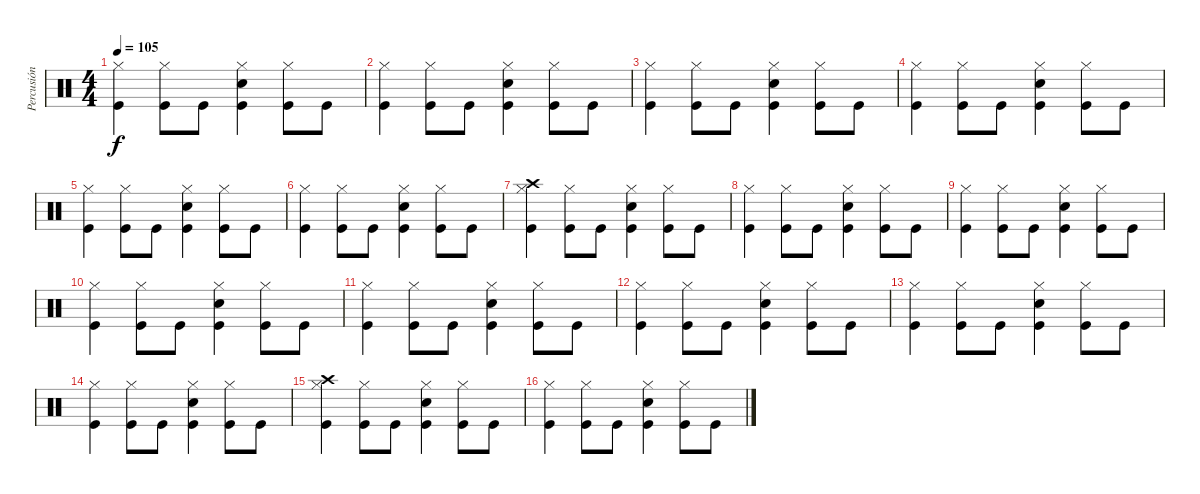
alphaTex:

\track ("Percusión" "Percusión") {instrument percussion}
\staff {score}
\articulation defaults
\ts (4 4)
\tempo 105
\clef neutral
\ks c
("Hi-Hat (closed)" "Kick (hit)").4{dy f} ("Hi-Hat (closed)" "Kick (hit)").8 "Kick (hit)".8 ("Hi-Hat (closed)" "Snare (hit) 2" "Kick (hit)").4 ("Hi-Hat (closed)" "Kick (hit)").8 "Kick (hit)".8 |
("Hi-Hat (closed)" "Kick (hit)").4 ("Hi-Hat (closed)" "Kick (hit)").8 "Kick (hit)".8 ("Hi-Hat (closed)" "Snare (hit) 2" "Kick (hit)").4 ("Hi-Hat (closed)" "Kick (hit)").8 "Kick (hit)".8 |
("Hi-Hat (closed)" "Kick (hit)").4 ("Hi-Hat (closed)" "Kick (hit)").8 "Kick (hit)".8 ("Hi-Hat (closed)" "Snare (hit) 2" "Kick (hit)").4 ("Hi-Hat (closed)" "Kick (hit)").8 "Kick (hit)".8 |
("Hi-Hat (closed)" "Kick (hit)").4 ("Hi-Hat (closed)" "Kick (hit)").8 "Kick (hit)".8 ("Hi-Hat (closed)" "Snare (hit) 2" "Kick (hit)").4 ("Hi-Hat (closed)" "Kick (hit)").8 "Kick (hit)".8 |
("Hi-Hat (closed)" "Kick (hit)").4 ("Hi-Hat (closed)" "Kick (hit)").8 "Kick (hit)".8 ("Hi-Hat (closed)" "Snare (hit) 2" "Kick (hit)").4 ("Hi-Hat (closed)" "Kick (hit)").8 "Kick (hit)".8 |
("Hi-Hat (closed)" "Kick (hit)").4 ("Hi-Hat (closed)" "Kick (hit)").8 "Kick (hit)".8 ("Hi-Hat (closed)" "Snare (hit) 2" "Kick (hit)").4 ("Hi-Hat (closed)" "Kick (hit)").8 "Kick (hit)".8 |
("Hi-Hat (closed)" "Crash high (hit)" "Kick (hit)").4 ("Hi-Hat (closed)" "Kick (hit)").8 "Kick (hit)".8 ("Hi-Hat (closed)" "Snare (hit) 2" "Kick (hit)").4 ("Hi-Hat (closed)" "Kick (hit)").8 "Kick (hit)".8 |
("Hi-Hat (closed)" "Kick (hit)").4 ("Hi-Hat (closed)" "Kick (hit)").8 "Kick (hit)".8 ("Hi-Hat (closed)" "Snare (hit) 2" "Kick (hit)").4 ("Hi-Hat (closed)" "Kick (hit)").8 "Kick (hit)".8 |
("Hi-Hat (closed)" "Kick (hit)").4 ("Hi-Hat (closed)" "Kick (hit)").8 "Kick (hit)".8 ("Hi-Hat (closed)" "Snare (hit) 2" "Kick (hit)").4 ("Hi-Hat (closed)" "Kick (hit)").8 "Kick (hit)".8 |
("Hi-Hat (closed)" "Kick (hit)").4 ("Hi-Hat (closed)" "Kick (hit)").8 "Kick (hit)".8 ("Hi-Hat (closed)" "Snare (hit) 2" "Kick (hit)").4 ("Hi-Hat (closed)" "Kick (hit)").8 "Kick (hit)".8 |
("Hi-Hat (closed)" "Kick (hit)").4 ("Hi-Hat (closed)" "Kick (hit)").8 "Kick (hit)".8 ("Hi-Hat (closed)" "Snare (hit) 2" "Kick (hit)").4 ("Hi-Hat (closed)" "Kick (hit)").8 "Kick (hit)".8 |
("Hi-Hat (closed)" "Kick (hit)").4 ("Hi-Hat (closed)" "Kick (hit)").8 "Kick (hit)".8 ("Hi-Hat (closed)" "Snare (hit) 2" "Kick (hit)").4 ("Hi-Hat (closed)" "Kick (hit)").8 "Kick (hit)".8 |
("Hi-Hat (closed)" "Kick (hit)").4 ("Hi-Hat (closed)" "Kick (hit)").8 "Kick (hit)".8 ("Hi-Hat (closed)" "Snare (hit) 2" "Kick (hit)").4 ("Hi-Hat (closed)" "Kick (hit)").8 "Kick (hit)".8 |
("Hi-Hat (closed)" "Kick (hit)").4 ("Hi-Hat (closed)" "Kick (hit)").8 "Kick (hit)".8 ("Hi-Hat (closed)" "Snare (hit) 2" "Kick (hit)").4 ("Hi-Hat (closed)" "Kick (hit)").8 "Kick (hit)".8 |
("Hi-Hat (closed)" "Crash high (hit)" "Kick (hit)").4 ("Hi-Hat (closed)" "Kick (hit)").8 "Kick (hit)".8 ("Hi-Hat (closed)" "Snare (hit) 2" "Kick (hit)").4 ("Hi-Hat (closed)" "Kick (hit)").8 "Kick (hit)".8 |
("Hi-Hat (closed)" "Kick (hit)").4 ("Hi-Hat (closed)" "Kick (hit)").8 "Kick (hit)".8 ("Hi-Hat (closed)" "Snare (hit) 2" "Kick (hit)").4 ("Hi-Hat (closed)" "Kick (hit)").8 "Kick (hit)".8
